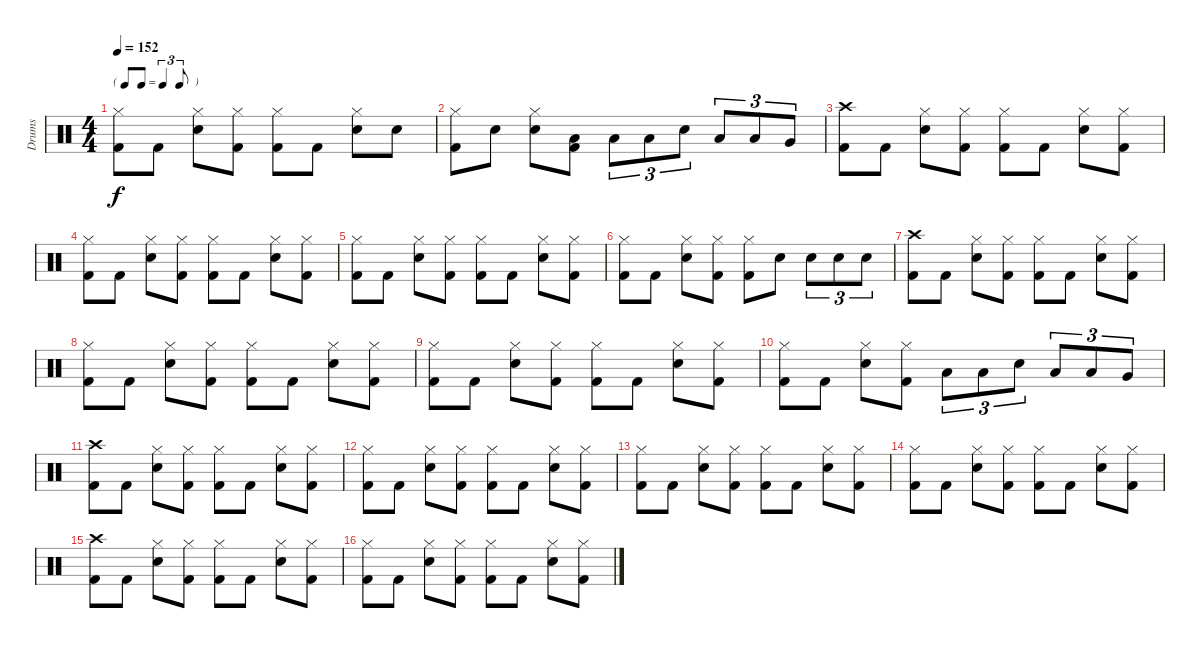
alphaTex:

\track ("Drums" "Drums") {instrument percussion}
\staff {score}
\articulation defaults
\ts (4 4)
\tf triplet8th
\tempo 152
\clef neutral
\ks c
("Hi-Hat (closed)" "Kick (hit) 2").8{dy f} "Kick (hit) 2".8 ("Hi-Hat (closed)" "Snare (hit) 2").8 ("Hi-Hat (closed)" "Kick (hit) 2").8 ("Hi-Hat (closed)" "Kick (hit) 2").8 "Kick (hit) 2".8 ("Hi-Hat (closed)" "Snare (hit) 2").8 "Snare (hit) 2".8 |
("Hi-Hat (closed)" "Kick (hit) 2").8 "Snare (hit) 2".8 ("Hi-Hat (closed)" "Snare (hit) 2").8 ("Low Tom (hit)" "Kick (hit) 2").8 "Low Tom (hit)".8{tu (3 2)} "Low Tom (hit)".8{tu (3 2)} "Snare (hit) 2".8{tu (3 2)} "Low Tom (hit)".8{tu (3 2)} "Low Tom (hit)".8{tu (3 2)} "Very Low Tom (hit)".8{tu (3 2)} |
("Crash high (hit)" "Kick (hit) 2").8 "Kick (hit) 2".8 ("Hi-Hat (closed)" "Snare (hit) 2").8 ("Hi-Hat (closed)" "Kick (hit) 2").8 ("Hi-Hat (closed)" "Kick (hit) 2").8 "Kick (hit) 2".8 ("Hi-Hat (closed)" "Snare (hit) 2").8 ("Hi-Hat (closed)" "Kick (hit) 2").8 |
("Hi-Hat (closed)" "Kick (hit) 2").8 "Kick (hit) 2".8 ("Hi-Hat (closed)" "Snare (hit) 2").8 ("Hi-Hat (closed)" "Kick (hit) 2").8 ("Hi-Hat (closed)" "Kick (hit) 2").8 "Kick (hit) 2".8 ("Hi-Hat (closed)" "Snare (hit) 2").8 ("Hi-Hat (closed)" "Kick (hit) 2").8 |
("Hi-Hat (closed)" "Kick (hit) 2").8 "Kick (hit) 2".8 ("Hi-Hat (closed)" "Snare (hit) 2").8 ("Hi-Hat (closed)" "Kick (hit) 2").8 ("Hi-Hat (closed)" "Kick (hit) 2").8 "Kick (hit) 2".8 ("Hi-Hat (closed)" "Snare (hit) 2").8 ("Hi-Hat (closed)" "Kick (hit) 2").8 |
("Hi-Hat (closed)" "Kick (hit) 2").8 "Kick (hit) 2".8 ("Hi-Hat (closed)" "Snare (hit) 2").8 ("Hi-Hat (closed)" "Kick (hit) 2").8 ("Hi-Hat (closed)" "Kick (hit) 2").8 "Snare (hit) 2".8 "Snare (hit) 2".8{tu (3 2)} "Snare (hit) 2".8{tu (3 2)} "Snare (hit) 2".8{tu (3 2)} |
("Crash high (hit)" "Kick (hit) 2").8 "Kick (hit) 2".8 ("Hi-Hat (closed)" "Snare (hit) 2").8 ("Hi-Hat (closed)" "Kick (hit) 2").8 ("Hi-Hat (closed)" "Kick (hit) 2").8 "Kick (hit) 2".8 ("Hi-Hat (closed)" "Snare (hit) 2").8 ("Hi-Hat (closed)" "Kick (hit) 2").8 |
("Hi-Hat (closed)" "Kick (hit) 2").8 "Kick (hit) 2".8 ("Hi-Hat (closed)" "Snare (hit) 2").8 ("Hi-Hat (closed)" "Kick (hit) 2").8 ("Hi-Hat (closed)" "Kick (hit) 2").8 "Kick (hit) 2".8 ("Hi-Hat (closed)" "Snare (hit) 2").8 ("Hi-Hat (closed)" "Kick (hit) 2").8 |
("Hi-Hat (closed)" "Kick (hit) 2").8 "Kick (hit) 2".8 ("Hi-Hat (closed)" "Snare (hit) 2").8 ("Hi-Hat (closed)" "Kick (hit) 2").8 ("Hi-Hat (closed)" "Kick (hit) 2").8 "Kick (hit) 2".8 ("Hi-Hat (closed)" "Snare (hit) 2").8 ("Hi-Hat (closed)" "Kick (hit) 2").8 |
("Hi-Hat (closed)" "Kick (hit) 2").8 "Kick (hit) 2".8 ("Hi-Hat (closed)" "Snare (hit) 2").8 ("Hi-Hat (closed)" "Kick (hit) 2").8 "Low Tom (hit)".8{tu (3 2)} "Low Tom (hit)".8{tu (3 2)} "Snare (hit) 2".8{tu (3 2)} "Low Tom (hit)".8{tu (3 2)} "Low Tom (hit)".8{tu (3 2)} "Very Low Tom (hit)".8{tu (3 2)} |
("Crash high (hit)" "Kick (hit) 2").8 "Kick (hit) 2".8 ("Hi-Hat (closed)" "Snare (hit) 2").8 ("Hi-Hat (closed)" "Kick (hit) 2").8 ("Hi-Hat (closed)" "Kick (hit) 2").8 "Kick (hit) 2".8 ("Hi-Hat (closed)" "Snare (hit) 2").8 ("Hi-Hat (closed)" "Kick (hit) 2").8 |
("Hi-Hat (closed)" "Kick (hit) 2").8 "Kick (hit) 2".8 ("Hi-Hat (closed)" "Snare (hit) 2").8 ("Hi-Hat (closed)" "Kick (hit) 2").8 ("Hi-Hat (closed)" "Kick (hit) 2").8 "Kick (hit) 2".8 ("Hi-Hat (closed)" "Snare (hit) 2").8 ("Hi-Hat (closed)" "Kick (hit) 2").8 |
("Hi-Hat (closed)" "Kick (hit) 2").8 "Kick (hit) 2".8 ("Hi-Hat (closed)" "Snare (hit) 2").8 ("Hi-Hat (closed)" "Kick (hit) 2").8 ("Hi-Hat (closed)" "Kick (hit) 2").8 "Kick (hit) 2".8 ("Hi-Hat (closed)" "Snare (hit) 2").8 ("Hi-Hat (closed)" "Kick (hit) 2").8 |
("Hi-Hat (closed)" "Kick (hit) 2").8 "Kick (hit) 2".8 ("Hi-Hat (closed)" "Snare (hit) 2").8 ("Hi-Hat (closed)" "Kick (hit) 2").8 ("Hi-Hat (closed)" "Kick (hit) 2").8 "Kick (hit) 2".8 ("Hi-Hat (closed)" "Snare (hit) 2").8 ("Hi-Hat (closed)" "Kick (hit) 2").8 |
("Crash high (hit)" "Kick (hit) 2").8 "Kick (hit) 2".8 ("Hi-Hat (closed)" "Snare (hit) 2").8 ("Hi-Hat (closed)" "Kick (hit) 2").8 ("Hi-Hat (closed)" "Kick (hit) 2").8 "Kick (hit) 2".8 ("Hi-Hat (closed)" "Snare (hit) 2").8 ("Hi-Hat (closed)" "Kick (hit) 2").8 |
("Hi-Hat (closed)" "Kick (hit) 2").8 "Kick (hit) 2".8 ("Hi-Hat (closed)" "Snare (hit) 2").8 ("Hi-Hat (closed)" "Kick (hit) 2").8 ("Hi-Hat (closed)" "Kick (hit) 2").8 "Kick (hit) 2".8 ("Hi-Hat (closed)" "Snare (hit) 2").8 ("Hi-Hat (closed)" "Kick (hit) 2").8
